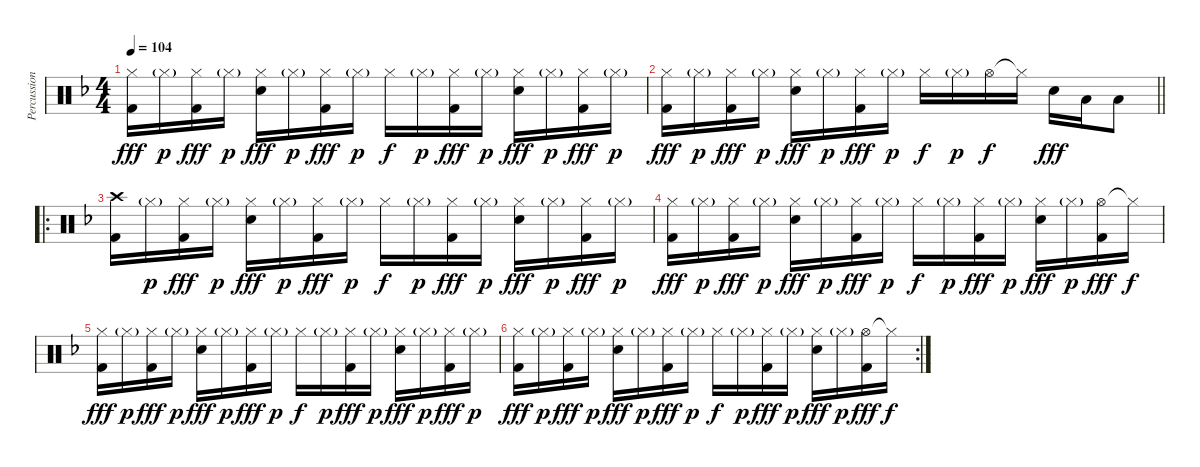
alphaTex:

\track ("Percussion" "Percussion") {instrument percussion}
\staff {score}
\articulation defaults
\ts (4 4)
\tempo 104
\clef neutral
\ks dminor
("Hi-Hat (closed)" "Kick (hit) 2").16{dy fff} "Hi-Hat (closed)"{g}.16{dy p} ("Hi-Hat (closed)" "Kick (hit) 2").16{dy fff} "Hi-Hat (closed)"{g}.16{dy p} ("Hi-Hat (closed)" "Snare (hit) 2").16{dy fff} "Hi-Hat (closed)"{g}.16{dy p} ("Hi-Hat (closed)" "Kick (hit) 2").16{dy fff} "Hi-Hat (closed)"{g}.16{dy p} "Hi-Hat (closed)".16{dy f} "Hi-Hat (closed)"{g}.16{dy p} ("Hi-Hat (closed)" "Kick (hit) 2").16{dy fff} "Hi-Hat (closed)"{g}.16{dy p} ("Hi-Hat (closed)" "Snare (hit) 2").16{dy fff} "Hi-Hat (closed)"{g}.16{dy p} ("Hi-Hat (closed)" "Kick (hit) 2").16{dy fff} "Hi-Hat (closed)"{g}.16{dy p} |
\barLineRight lightlight
("Hi-Hat (closed)" "Kick (hit) 2").16{dy fff} "Hi-Hat (closed)"{g}.16{dy p} ("Hi-Hat (closed)" "Kick (hit) 2").16{dy fff} "Hi-Hat (closed)"{g}.16{dy p} ("Hi-Hat (closed)" "Snare (hit) 2").16{dy fff} "Hi-Hat (closed)"{g}.16{dy p} ("Hi-Hat (closed)" "Kick (hit) 2").16{dy fff} "Hi-Hat (closed)"{g}.16{dy p} "Hi-Hat (closed)".16{dy f} "Hi-Hat (closed)"{g}.16{dy p} "Hi-Hat (open)".16{dy f} "Hi-Hat (closed)"{t}.16 "Snare (hit) 2".16{dy fff} "Low Tom (hit)".16 "Low Floor Tom (hit)".8 |
\ro
("Crash high (hit)" "Kick (hit) 2").16 "Hi-Hat (closed)"{g}.16{dy p} ("Hi-Hat (closed)" "Kick (hit) 2").16{dy fff} "Hi-Hat (closed)"{g}.16{dy p} ("Hi-Hat (closed)" "Snare (hit) 2").16{dy fff} "Hi-Hat (closed)"{g}.16{dy p} ("Hi-Hat (closed)" "Kick (hit) 2").16{dy fff} "Hi-Hat (closed)"{g}.16{dy p} "Hi-Hat (closed)".16{dy f} "Hi-Hat (closed)"{g}.16{dy p} ("Hi-Hat (closed)" "Kick (hit) 2").16{dy fff} "Hi-Hat (closed)"{g}.16{dy p} ("Hi-Hat (closed)" "Snare (hit) 2").16{dy fff} "Hi-Hat (closed)"{g}.16{dy p} ("Hi-Hat (closed)" "Kick (hit) 2").16{dy fff} "Hi-Hat (closed)"{g}.16{dy p} |
("Hi-Hat (closed)" "Kick (hit) 2").16{dy fff} "Hi-Hat (closed)"{g}.16{dy p} ("Hi-Hat (closed)" "Kick (hit) 2").16{dy fff} "Hi-Hat (closed)"{g}.16{dy p} ("Hi-Hat (closed)" "Snare (hit) 2").16{dy fff} "Hi-Hat (closed)"{g}.16{dy p} ("Hi-Hat (closed)" "Kick (hit) 2").16{dy fff} "Hi-Hat (closed)"{g}.16{dy p} "Hi-Hat (closed)".16{dy f} "Hi-Hat (closed)"{g}.16{dy p} ("Hi-Hat (closed)" "Kick (hit) 2").16{dy fff} "Hi-Hat (closed)"{g}.16{dy p} ("Hi-Hat (closed)" "Snare (hit) 2").16{dy fff} "Hi-Hat (closed)"{g}.16{dy p} ("Hi-Hat (open)" "Kick (hit) 2").16{dy fff} "Hi-Hat (closed)"{t}.16{dy f} |
("Hi-Hat (closed)" "Kick (hit) 2").16{dy fff} "Hi-Hat (closed)"{g}.16{dy p} ("Hi-Hat (closed)" "Kick (hit) 2").16{dy fff} "Hi-Hat (closed)"{g}.16{dy p} ("Hi-Hat (closed)" "Snare (hit) 2").16{dy fff} "Hi-Hat (closed)"{g}.16{dy p} ("Hi-Hat (closed)" "Kick (hit) 2").16{dy fff} "Hi-Hat (closed)"{g}.16{dy p} "Hi-Hat (closed)".16{dy f} "Hi-Hat (closed)"{g}.16{dy p} ("Hi-Hat (closed)" "Kick (hit) 2").16{dy fff} "Hi-Hat (closed)"{g}.16{dy p} ("Hi-Hat (closed)" "Snare (hit) 2").16{dy fff} "Hi-Hat (closed)"{g}.16{dy p} ("Hi-Hat (closed)" "Kick (hit) 2").16{dy fff} "Hi-Hat (closed)"{g}.16{dy p} |
\rc 2
("Hi-Hat (closed)" "Kick (hit) 2").16{dy fff} "Hi-Hat (closed)"{g}.16{dy p} ("Hi-Hat (closed)" "Kick (hit) 2").16{dy fff} "Hi-Hat (closed)"{g}.16{dy p} ("Hi-Hat (closed)" "Snare (hit) 2").16{dy fff} "Hi-Hat (closed)"{g}.16{dy p} ("Hi-Hat (closed)" "Kick (hit) 2").16{dy fff} "Hi-Hat (closed)"{g}.16{dy p} "Hi-Hat (closed)".16{dy f} "Hi-Hat (closed)"{g}.16{dy p} ("Hi-Hat (closed)" "Kick (hit) 2").16{dy fff} "Hi-Hat (closed)"{g}.16{dy p} ("Hi-Hat (closed)" "Snare (hit) 2").16{dy fff} "Hi-Hat (closed)"{g}.16{dy p} ("Hi-Hat (open)" "Kick (hit) 2").16{dy fff} "Hi-Hat (closed)"{t}.16{dy f}
